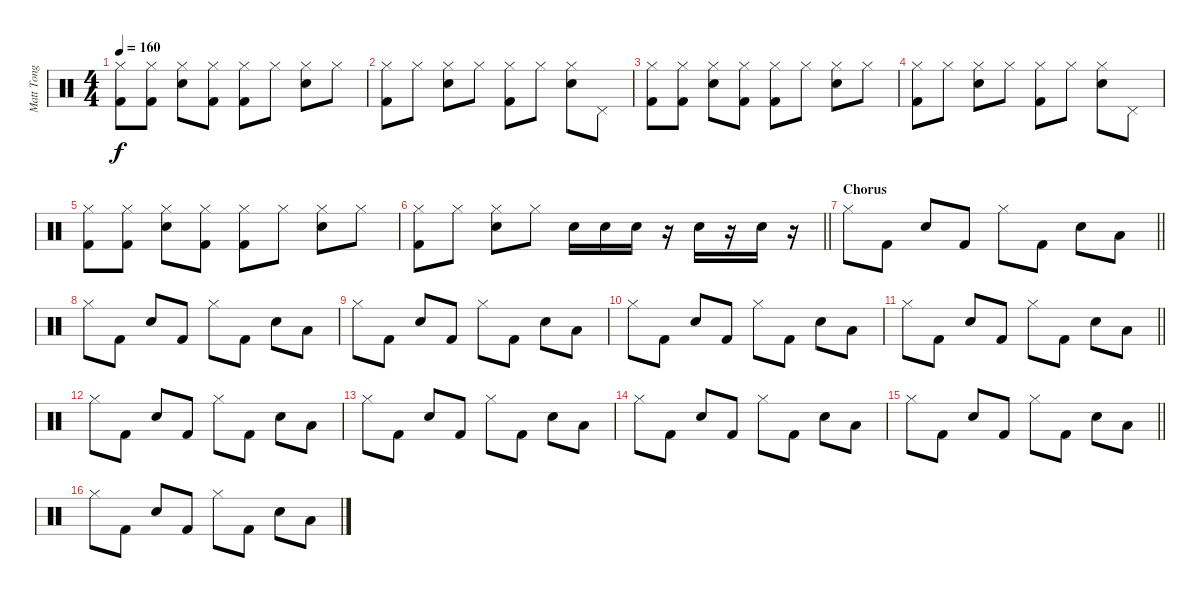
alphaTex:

\track ("Matt Tong" "Matt Tong") {instrument percussion}
\staff {score}
\articulation defaults
\ts (4 4)
\tempo 160
\clef neutral
\ks c
("Hi-Hat (closed)" "Kick (hit) 2").8{dy f} ("Hi-Hat (closed)" "Kick (hit) 2").8 ("Hi-Hat (closed)" "Snare (hit) 2").8 ("Hi-Hat (closed)" "Kick (hit) 2").8 ("Hi-Hat (closed)" "Kick (hit) 2").8 "Hi-Hat (closed)".8 ("Hi-Hat (closed)" "Snare (hit) 2").8 "Hi-Hat (closed)".8 |
("Hi-Hat (closed)" "Kick (hit) 2").8 "Hi-Hat (closed)".8 ("Hi-Hat (closed)" "Snare (hit) 2").8 "Hi-Hat (closed)".8 ("Hi-Hat (closed)" "Kick (hit) 2").8 "Hi-Hat (closed)".8 ("Hi-Hat (closed)" "Snare (hit) 2").8 "Pedal Hi-Hat (hit)".8 |
("Hi-Hat (closed)" "Kick (hit) 2").8 ("Hi-Hat (closed)" "Kick (hit) 2").8 ("Hi-Hat (closed)" "Snare (hit) 2").8 ("Hi-Hat (closed)" "Kick (hit) 2").8 ("Hi-Hat (closed)" "Kick (hit) 2").8 "Hi-Hat (closed)".8 ("Hi-Hat (closed)" "Snare (hit) 2").8 "Hi-Hat (closed)".8 |
("Hi-Hat (closed)" "Kick (hit) 2").8 "Hi-Hat (closed)".8 ("Hi-Hat (closed)" "Snare (hit) 2").8 "Hi-Hat (closed)".8 ("Hi-Hat (closed)" "Kick (hit) 2").8 "Hi-Hat (closed)".8 ("Hi-Hat (closed)" "Snare (hit) 2").8 "Pedal Hi-Hat (hit)".8 |
("Hi-Hat (closed)" "Kick (hit) 2").8 ("Hi-Hat (closed)" "Kick (hit) 2").8 ("Hi-Hat (closed)" "Snare (hit) 2").8 ("Hi-Hat (closed)" "Kick (hit) 2").8 ("Hi-Hat (closed)" "Kick (hit) 2").8 "Hi-Hat (closed)".8 ("Hi-Hat (closed)" "Snare (hit) 2").8 "Hi-Hat (closed)".8 |
\barLineRight lightlight
("Hi-Hat (closed)" "Kick (hit) 2").8 "Hi-Hat (closed)".8 ("Hi-Hat (closed)" "Snare (hit) 2").8 "Hi-Hat (closed)".8 "Snare (hit) 2".16 "Snare (hit) 2".16 "Snare (hit) 2".16 r.16 "Snare (hit) 2".16 r.16 "Snare (hit) 2".16 r.16 |
\section ("" "Chorus")
\barLineRight lightlight "Hi-Hat (closed)".8 "Kick (hit) 2".8 "Snare (hit) 2".8 "Kick (hit) 2".8 "Hi-Hat (closed)".8 "Kick (hit) 2".8 "Snare (hit) 2".8 "Low Tom (hit)".8
|
"Hi-Hat (closed)".8 "Kick (hit) 2".8 "Snare (hit) 2".8 "Kick (hit) 2".8 "Hi-Hat (closed)".8 "Kick (hit) 2".8 "Snare (hit) 2".8 "Low Tom (hit)".8 |
"Hi-Hat (closed)".8 "Kick (hit) 2".8 "Snare (hit) 2".8 "Kick (hit) 2".8 "Hi-Hat (closed)".8 "Kick (hit) 2".8 "Snare (hit) 2".8 "Low Tom (hit)".8 |
"Hi-Hat (closed)".8 "Kick (hit) 2".8 "Snare (hit) 2".8 "Kick (hit) 2".8 "Hi-Hat (closed)".8 "Kick (hit) 2".8 "Snare (hit) 2".8 "Low Tom (hit)".8 |
\barLineRight lightlight "Hi-Hat (closed)".8 "Kick (hit) 2".8 "Snare (hit) 2".8 "Kick (hit) 2".8 "Hi-Hat (closed)".8 "Kick (hit) 2".8 "Snare (hit) 2".8 "Low Tom (hit)".8
|
"Hi-Hat (closed)".8 "Kick (hit) 2".8 "Snare (hit) 2".8 "Kick (hit) 2".8 "Hi-Hat (closed)".8 "Kick (hit) 2".8 "Snare (hit) 2".8 "Low Tom (hit)".8 |
"Hi-Hat (closed)".8 "Kick (hit) 2".8 "Snare (hit) 2".8 "Kick (hit) 2".8 "Hi-Hat (closed)".8 "Kick (hit) 2".8 "Snare (hit) 2".8 "Low Tom (hit)".8 |
"Hi-Hat (closed)".8 "Kick (hit) 2".8 "Snare (hit) 2".8 "Kick (hit) 2".8 "Hi-Hat (closed)".8 "Kick (hit) 2".8 "Snare (hit) 2".8 "Low Tom (hit)".8 |
\barLineRight lightlight "Hi-Hat (closed)".8 "Kick (hit) 2".8 "Snare (hit) 2".8 "Kick (hit) 2".8 "Hi-Hat (closed)".8 "Kick (hit) 2".8 "Snare (hit) 2".8 "Low Tom (hit)".8
|
"Hi-Hat (closed)".8 "Kick (hit) 2".8 "Snare (hit) 2".8 "Kick (hit) 2".8 "Hi-Hat (closed)".8 "Kick (hit) 2".8 "Snare (hit) 2".8 "Low Tom (hit)".8
